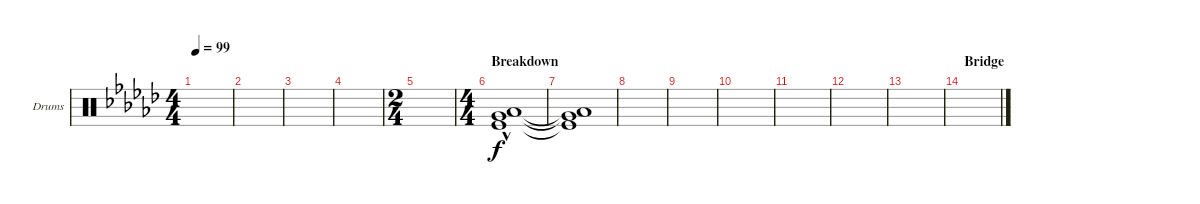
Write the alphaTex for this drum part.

\bracketExtendMode groupsimilarinstruments
\firstSystemTrackNameOrientation horizontal
\otherSystemsTrackNameOrientation horizontal
\track ("Bass Drop" "Drums") {instrument percussion}
\staff {score}
\articulation defaults
\ts (4 4)
\tempo 99
\clef neutral
\scale
0.333333
\ks ebminor
|
\scale
0.333333 |
\scale
0.333333 |
\scale
0.333333 |
\ts (2 4)
\scale
0.417391 |
\ts (4 4)
\section ("" "Breakdown")
\scale
0.417391 ("Kick (hit)"{hac} "Very Low Tom (hit)"{hac} "Low Tom (hit)"{hac}).1 |
\scale
0.165217 ("Kick (hit)"{t} "Very Low Tom (hit)"{t} "Low Tom (hit)"{t}).1 |
\scale
0.333333 |
\scale
0.333333 |
\scale
0.333333 |
\scale
0.333333 |
\scale
0.333333 |
\scale
0.333333 |
\section ("" "Bridge")
\scale
0.333333 |
\scale
0.333333 |
\scale
0.333333
